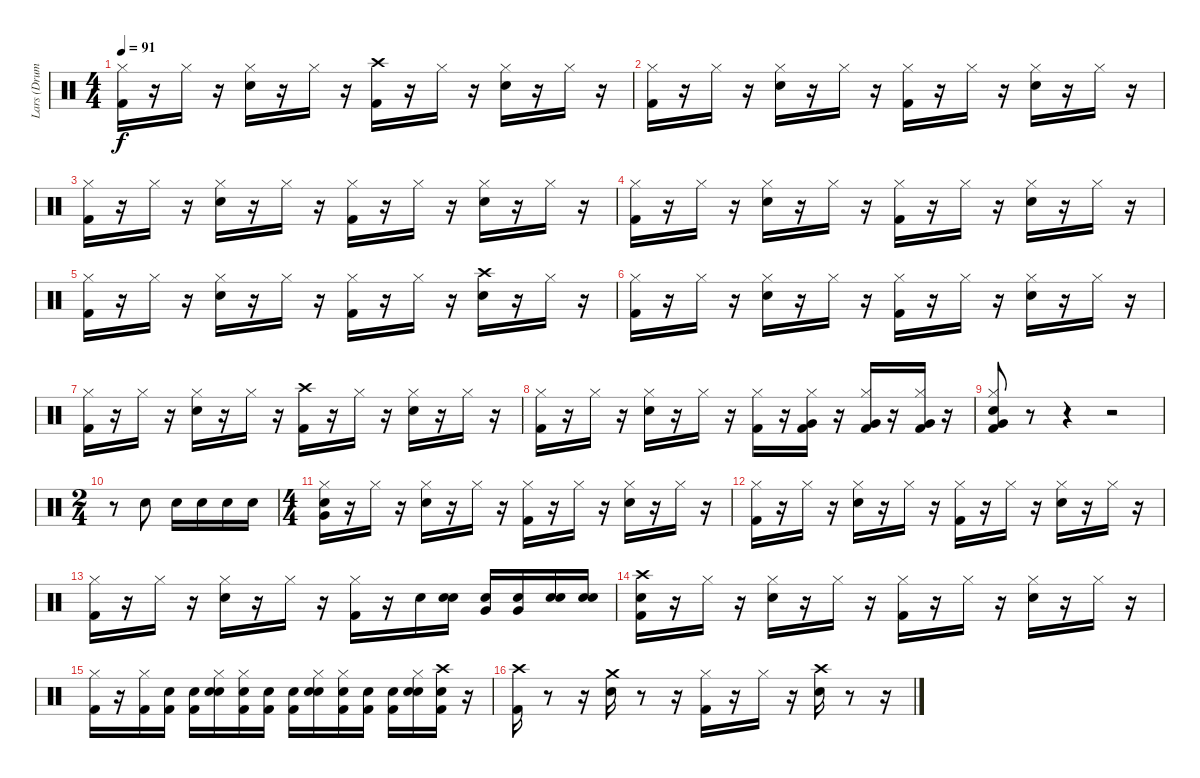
\track ("Lars (Drums)" "Lars (Drum") {instrument percussion}
\staff {score}
\articulation defaults
\ts (4 4)
\tempo 91
\clef neutral
\ks c
("Kick (hit) 2" "Hi-Hat (closed)").16{dy f} r.16 "Hi-Hat (closed)".16 r.16 ("Snare (hit) 2" "Hi-Hat (closed)").16 r.16 "Hi-Hat (closed)".16 r.16 ("Kick (hit) 2" "Crash high (hit)").16 r.16 "Hi-Hat (closed)".16 r.16 ("Snare (hit) 2" "Hi-Hat (closed)").16 r.16 "Hi-Hat (closed)".16 r.16 |
("Kick (hit) 2" "Hi-Hat (closed)").16 r.16 "Hi-Hat (closed)".16 r.16 ("Snare (hit) 2" "Hi-Hat (closed)").16 r.16 "Hi-Hat (closed)".16 r.16 ("Kick (hit) 2" "Hi-Hat (closed)").16 r.16 "Hi-Hat (closed)".16 r.16 ("Snare (hit) 2" "Hi-Hat (closed)").16 r.16 "Hi-Hat (closed)".16 r.16 |
("Kick (hit) 2" "Hi-Hat (closed)").16 r.16 "Hi-Hat (closed)".16 r.16 ("Snare (hit) 2" "Hi-Hat (closed)").16 r.16 "Hi-Hat (closed)".16 r.16 ("Kick (hit) 2" "Hi-Hat (closed)").16 r.16 "Hi-Hat (closed)".16 r.16 ("Snare (hit) 2" "Hi-Hat (closed)").16 r.16 "Hi-Hat (closed)".16 r.16 |
("Kick (hit) 2" "Hi-Hat (closed)").16 r.16 "Hi-Hat (closed)".16 r.16 ("Snare (hit) 2" "Hi-Hat (closed)").16 r.16 "Hi-Hat (closed)".16 r.16 ("Kick (hit) 2" "Hi-Hat (closed)").16 r.16 "Hi-Hat (closed)".16 r.16 ("Snare (hit) 2" "Hi-Hat (closed)").16 r.16 "Hi-Hat (closed)".16 r.16 |
("Kick (hit) 2" "Hi-Hat (closed)").16 r.16 "Hi-Hat (closed)".16 r.16 ("Snare (hit) 2" "Hi-Hat (closed)").16 r.16 "Hi-Hat (closed)".16 r.16 ("Kick (hit) 2" "Hi-Hat (closed)").16 r.16 "Hi-Hat (closed)".16 r.16 ("Snare (hit) 2" "Crash high (hit)").16 r.16 "Hi-Hat (closed)".16 r.16 |
("Kick (hit) 2" "Hi-Hat (closed)").16 r.16 "Hi-Hat (closed)".16 r.16 ("Snare (hit) 2" "Hi-Hat (closed)").16 r.16 "Hi-Hat (closed)".16 r.16 ("Kick (hit) 2" "Hi-Hat (closed)").16 r.16 "Hi-Hat (closed)".16 r.16 ("Snare (hit) 2" "Hi-Hat (closed)").16 r.16 "Hi-Hat (closed)".16 r.16 |
("Kick (hit) 2" "Hi-Hat (closed)").16 r.16 "Hi-Hat (closed)".16 r.16 ("Snare (hit) 2" "Hi-Hat (closed)").16 r.16 "Hi-Hat (closed)".16 r.16 ("Kick (hit) 2" "Crash high (hit)").16 r.16 "Hi-Hat (closed)".16 r.16 ("Snare (hit) 2" "Hi-Hat (closed)").16 r.16 "Hi-Hat (closed)".16 r.16 |
("Kick (hit) 2" "Hi-Hat (closed)").16 r.16 "Hi-Hat (closed)".16 r.16 ("Snare (hit) 2" "Hi-Hat (closed)").16 r.16 "Hi-Hat (closed)".16 r.16 ("Kick (hit) 2" "Hi-Hat (closed)").16 r.16 ("Kick (hit) 2" "Hi-Hat (closed)" "Very Low Tom (hit)").16 r.16 ("Kick (hit) 2" "Hi-Hat (closed)" "Very Low Tom (hit)").16 r.16 ("Kick (hit) 2" "Hi-Hat (closed)" "Very Low Tom (hit)").16 r.16 |
("Kick (hit) 2" "Snare (hit) 2" "Hi-Hat (closed)" "Very Low Tom (hit)").8 r.8 r.4 r.2 |
\ts (2 4)
r.8 "Snare (hit) 2".8 "Snare (hit) 2".16 "Snare (hit) 2".16 "Snare (hit) 2".16 "Snare (hit) 2".16 |
\ts (4 4)
("Snare (hit)" "Hi-Hat (closed)" "Very Low Tom (hit)").16 r.16 "Hi-Hat (closed)".16 r.16 ("Snare (hit) 2" "Hi-Hat (closed)").16 r.16 "Hi-Hat (closed)".16 r.16 ("Kick (hit) 2" "Hi-Hat (closed)").16 r.16 "Hi-Hat (closed)".16 r.16 ("Snare (hit) 2" "Hi-Hat (closed)").16 r.16 "Hi-Hat (closed)".16 r.16 |
("Kick (hit) 2" "Hi-Hat (closed)").16 r.16 "Hi-Hat (closed)".16 r.16 ("Snare (hit) 2" "Hi-Hat (closed)").16 r.16 "Hi-Hat (closed)".16 r.16 ("Kick (hit) 2" "Hi-Hat (closed)").16 r.16 "Hi-Hat (closed)".16 r.16 ("Snare (hit) 2" "Hi-Hat (closed)").16 r.16 "Hi-Hat (closed)".16 r.16 |
("Kick (hit) 2" "Hi-Hat (closed)").16 r.16 "Hi-Hat (closed)".16 r.16 ("Snare (hit) 2" "Hi-Hat (closed)").16 r.16 "Hi-Hat (closed)".16 r.16 ("Kick (hit) 2" "Hi-Hat (closed)").16 r.16 "Snare (hit) 2".16 ("Snare (hit)" "Snare (hit) 2").16 ("Snare (hit)" "Very Low Tom (hit)").16 ("Snare (hit)" "Very Low Tom (hit)").16 ("Snare (hit)" "Snare (hit) 2").16 ("Snare (hit)" "Snare (hit) 2").16 |
("Snare (hit)" "Kick (hit) 2" "Crash high (hit)").16 r.16 "Hi-Hat (closed)".16 r.16 ("Snare (hit) 2" "Hi-Hat (closed)").16 r.16 "Hi-Hat (closed)".16 r.16 ("Kick (hit) 2" "Hi-Hat (closed)").16 r.16 "Hi-Hat (closed)".16 r.16 ("Snare (hit) 2" "Hi-Hat (closed)").16 r.16 "Hi-Hat (closed)".16 r.16 |
("Kick (hit) 2" "Hi-Hat (closed)").16 r.16 ("Kick (hit) 2" "Hi-Hat (closed)").16 ("Snare (hit)" "Kick (hit) 2").16 ("Snare (hit)" "Kick (hit) 2").16 ("Snare (hit)" "Snare (hit) 2" "Hi-Hat (closed)").16 ("Snare (hit)" "Kick (hit) 2" "Hi-Hat (closed)").16 ("Snare (hit)" "Kick (hit) 2").16 ("Snare (hit)" "Kick (hit) 2").16 ("Snare (hit)" "Snare (hit) 2" "Hi-Hat (closed)").16 ("Snare (hit)" "Kick (hit) 2" "Hi-Hat (closed)").16 ("Snare (hit)" "Kick (hit) 2").16 ("Snare (hit)" "Kick (hit) 2").16 ("Snare (hit)" "Snare (hit) 2" "Hi-Hat (closed)").16 ("Snare (hit)" "Kick (hit) 2" "Crash high (hit)").16 r.16 |
("Kick (hit) 2" "Crash high (hit)").16 r.8 r.16 ("Snare (hit) 2" "Crash medium (hit)").16 r.8 r.16 ("Kick (hit) 2" "Hi-Hat (closed)").16 r.16 "Hi-Hat (closed)".16 r.16 ("Snare (hit) 2" "Crash high (hit)").16 r.8 r.16
